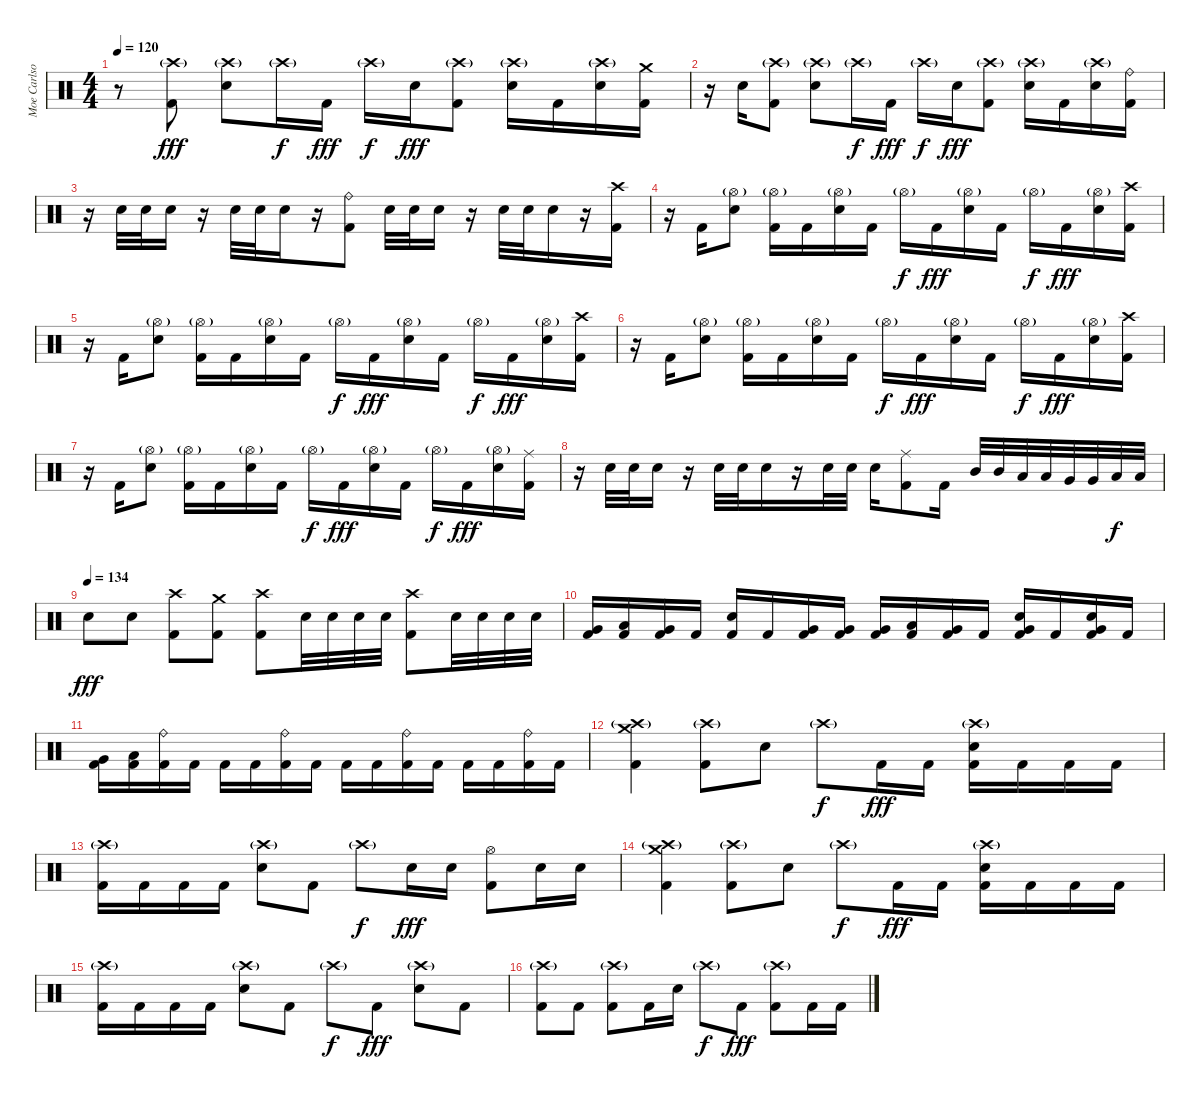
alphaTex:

\track ("Moe Carlson" "Moe Carlso") {instrument percussion}
\staff {score}
\articulation defaults
\ts (4 4)
\tempo 120
\clef neutral
\ks c
r.8{dy fff} ("Crash high (hit)"{g} "Kick (hit) 2").8 ("Crash high (hit)"{g} "Electric Snare (hit)").8 "Crash high (hit)"{g}.16{dy f} "Kick (hit) 2".16{dy fff} "Crash high (hit)"{g}.16{dy f} "Electric Snare (hit)".16{dy fff} ("Crash high (hit)"{g} "Kick (hit) 2").8 ("Crash high (hit)"{g} "Electric Snare (hit)").16 "Kick (hit) 2".16 ("Crash high (hit)"{g} "Electric Snare (hit)").16 ("Crash medium (hit)" "Kick (hit) 2").16 |
r.16 "Electric Snare (hit)".16 ("Crash high (hit)"{g} "Kick (hit) 2").8 ("Crash high (hit)"{g} "Electric Snare (hit)").8 "Crash high (hit)"{g}.16{dy f} "Kick (hit) 2".16{dy fff} "Crash high (hit)"{g}.16{dy f} "Electric Snare (hit)".16{dy fff} ("Crash high (hit)"{g} "Kick (hit) 2").8 ("Crash high (hit)"{g} "Electric Snare (hit)").16 "Kick (hit) 2".16 ("Crash high (hit)"{g} "Electric Snare (hit)").16 ("Ride (bell)" "Kick (hit) 2").16 |
r.16 "Electric Snare (hit)".32 "Electric Snare (hit)".32 "Electric Snare (hit)".16 r.16 "Electric Snare (hit)".32 "Electric Snare (hit)".32 "Electric Snare (hit)".16 r.16 ("Ride (bell)" "Kick (hit) 2").8 "Electric Snare (hit)".32 "Electric Snare (hit)".32 "Electric Snare (hit)".16 r.16 "Electric Snare (hit)".32 "Electric Snare (hit)".32 "Electric Snare (hit)".16 r.16 ("Crash high (hit)" "Kick (hit) 2").16 |
r.16 "Kick (hit) 2".16 ("Hi-Hat (open)"{g} "Electric Snare (hit)").8 ("Hi-Hat (open)"{g} "Kick (hit) 2").16 "Kick (hit) 2".16 ("Hi-Hat (open)"{g} "Electric Snare (hit)").16 "Kick (hit) 2".16 "Hi-Hat (open)"{g}.16{dy f} "Kick (hit) 2".16{dy fff} ("Hi-Hat (open)"{g} "Electric Snare (hit)").16 "Kick (hit) 2".16 "Hi-Hat (open)"{g}.16{dy f} "Kick (hit) 2".16{dy fff} ("Hi-Hat (open)"{g} "Electric Snare (hit)").16 ("Crash high (hit)" "Kick (hit) 2").16 |
r.16 "Kick (hit) 2".16 ("Hi-Hat (open)"{g} "Electric Snare (hit)").8 ("Hi-Hat (open)"{g} "Kick (hit) 2").16 "Kick (hit) 2".16 ("Hi-Hat (open)"{g} "Electric Snare (hit)").16 "Kick (hit) 2".16 "Hi-Hat (open)"{g}.16{dy f} "Kick (hit) 2".16{dy fff} ("Hi-Hat (open)"{g} "Electric Snare (hit)").16 "Kick (hit) 2".16 "Hi-Hat (open)"{g}.16{dy f} "Kick (hit) 2".16{dy fff} ("Hi-Hat (open)"{g} "Electric Snare (hit)").16 ("Crash high (hit)" "Kick (hit) 2").16 |
r.16 "Kick (hit) 2".16 ("Hi-Hat (open)"{g} "Electric Snare (hit)").8 ("Hi-Hat (open)"{g} "Kick (hit) 2").16 "Kick (hit) 2".16 ("Hi-Hat (open)"{g} "Electric Snare (hit)").16 "Kick (hit) 2".16 "Hi-Hat (open)"{g}.16{dy f} "Kick (hit) 2".16{dy fff} ("Hi-Hat (open)"{g} "Electric Snare (hit)").16 "Kick (hit) 2".16 "Hi-Hat (open)"{g}.16{dy f} "Kick (hit) 2".16{dy fff} ("Hi-Hat (open)"{g} "Electric Snare (hit)").16 ("Crash high (hit)" "Kick (hit) 2").16 |
r.16 "Kick (hit) 2".16 ("Hi-Hat (open)"{g} "Electric Snare (hit)").8 ("Hi-Hat (open)"{g} "Kick (hit) 2").16 "Kick (hit) 2".16 ("Hi-Hat (open)"{g} "Electric Snare (hit)").16 "Kick (hit) 2".16 "Hi-Hat (open)"{g}.16{dy f} "Kick (hit) 2".16{dy fff} ("Hi-Hat (open)"{g} "Electric Snare (hit)").16 "Kick (hit) 2".16 "Hi-Hat (open)"{g}.16{dy f} "Kick (hit) 2".16{dy fff} ("Hi-Hat (open)"{g} "Electric Snare (hit)").16 ("Ride (middle)" "Kick (hit) 2").16 |
r.16 "Electric Snare (hit)".32 "Electric Snare (hit)".32 "Electric Snare (hit)".16 r.16 "Electric Snare (hit)".32 "Electric Snare (hit)".32 "Electric Snare (hit)".16 r.16 "Electric Snare (hit)".32 "Electric Snare (hit)".32 "Electric Snare (hit)".16 ("Ride (middle)" "Kick (hit) 2").8 "Kick (hit) 2".16 "Mid Tom (hit)".32 "Mid Tom (hit)".32 "Low Tom (hit)".32 "Low Tom (hit)".32 "Very Low Tom (hit)".32 "Very Low Tom (hit)".32 "Low Floor Tom (hit)".32{dy f} "Low Floor Tom (hit)".32 |
\tempo (134)
"Electric Snare (hit)".8{dy fff} "Electric Snare (hit)".8 ("Crash high (hit)" "Kick (hit) 2").8 ("Crash medium (hit)" "Kick (hit) 2").8 ("Crash high (hit)" "Kick (hit) 2").8 "Electric Snare (hit)".32 "Electric Snare (hit)".32 "Electric Snare (hit)".32 "Electric Snare (hit)".32 ("Crash high (hit)" "Kick (hit) 2").8 "Electric Snare (hit)".32 "Electric Snare (hit)".32 "Electric Snare (hit)".32 "Electric Snare (hit)".32 |
("Very Low Tom (hit)" "Kick (hit) 2").16 ("Low Tom (hit)" "Kick (hit) 2").16 ("Very Low Tom (hit)" "Kick (hit) 2").16 "Kick (hit) 2".16 ("Electric Snare (hit)" "Kick (hit) 2").16 "Kick (hit) 2".16 ("Very Low Tom (hit)" "Kick (hit) 2").16 ("Very Low Tom (hit)" "Kick (hit) 2").16 ("Very Low Tom (hit)" "Kick (hit) 2").16 ("Low Tom (hit)" "Kick (hit) 2").16 ("Very Low Tom (hit)" "Kick (hit) 2").16 "Kick (hit) 2".16 ("Electric Snare (hit)" "Very Low Tom (hit)" "Kick (hit) 2").16 "Kick (hit) 2".16 ("Electric Snare (hit)" "Very Low Tom (hit)" "Kick (hit) 2").16 "Kick (hit) 2".16 |
("Very Low Tom (hit)" "Kick (hit) 2").16 ("Low Tom (hit)" "Kick (hit) 2").16 ("Ride (bell)" "Kick (hit) 2").16 "Kick (hit) 2".16 "Kick (hit) 2".16 "Kick (hit) 2".16 ("Ride (bell)" "Kick (hit) 2").16 "Kick (hit) 2".16 "Kick (hit) 2".16 "Kick (hit) 2".16 ("Ride (bell)" "Kick (hit) 2").16 "Kick (hit) 2".16 "Kick (hit) 2".16 "Kick (hit) 2".16 ("Ride (bell)" "Kick (hit) 2").16 "Kick (hit) 2".16 |
("Crash high (hit)"{g} "Crash medium (hit)" "Kick (hit) 2").4 ("Crash high (hit)"{g} "Kick (hit) 2").8 "Electric Snare (hit)".8 "Crash high (hit)"{g}.8{dy f} "Kick (hit) 2".16{dy fff} "Kick (hit) 2".16 ("Crash high (hit)"{g} "Electric Snare (hit)" "Kick (hit) 2").16 "Kick (hit) 2".16 "Kick (hit) 2".16 "Kick (hit) 2".16 |
("Crash high (hit)"{g} "Kick (hit) 2").16 "Kick (hit) 2".16 "Kick (hit) 2".16 "Kick (hit) 2".16 ("Crash high (hit)"{g} "Electric Snare (hit)").8 "Kick (hit) 2".8 "Crash high (hit)"{g}.8{dy f} "Electric Snare (hit)".16{dy fff} "Electric Snare (hit)".16 ("Hi-Hat (open)" "Kick (hit) 2").8 "Electric Snare (hit)".16 "Electric Snare (hit)".16 |
("Crash high (hit)"{g} "Crash medium (hit)" "Kick (hit) 2").4 ("Crash high (hit)"{g} "Kick (hit) 2").8 "Electric Snare (hit)".8 "Crash high (hit)"{g}.8{dy f} "Kick (hit) 2".16{dy fff} "Kick (hit) 2".16 ("Crash high (hit)"{g} "Electric Snare (hit)" "Kick (hit) 2").16 "Kick (hit) 2".16 "Kick (hit) 2".16 "Kick (hit) 2".16 |
("Crash high (hit)"{g} "Kick (hit) 2").16 "Kick (hit) 2".16 "Kick (hit) 2".16 "Kick (hit) 2".16 ("Crash high (hit)"{g} "Electric Snare (hit)").8 "Kick (hit) 2".8 "Crash high (hit)"{g}.8{dy f} "Kick (hit) 2".8{dy fff} ("Crash high (hit)"{g} "Electric Snare (hit)").8 "Kick (hit) 2".8 |
("Crash high (hit)"{g} "Kick (hit) 2").8 "Kick (hit) 2".8 ("Crash high (hit)"{g} "Kick (hit) 2").8 "Kick (hit) 2".16 "Electric Snare (hit)".16 "Crash high (hit)"{g}.8{dy f} "Kick (hit) 2".8{dy fff} ("Crash high (hit)"{g} "Kick (hit) 2").8 "Kick (hit) 2".16 "Kick (hit) 2".16
